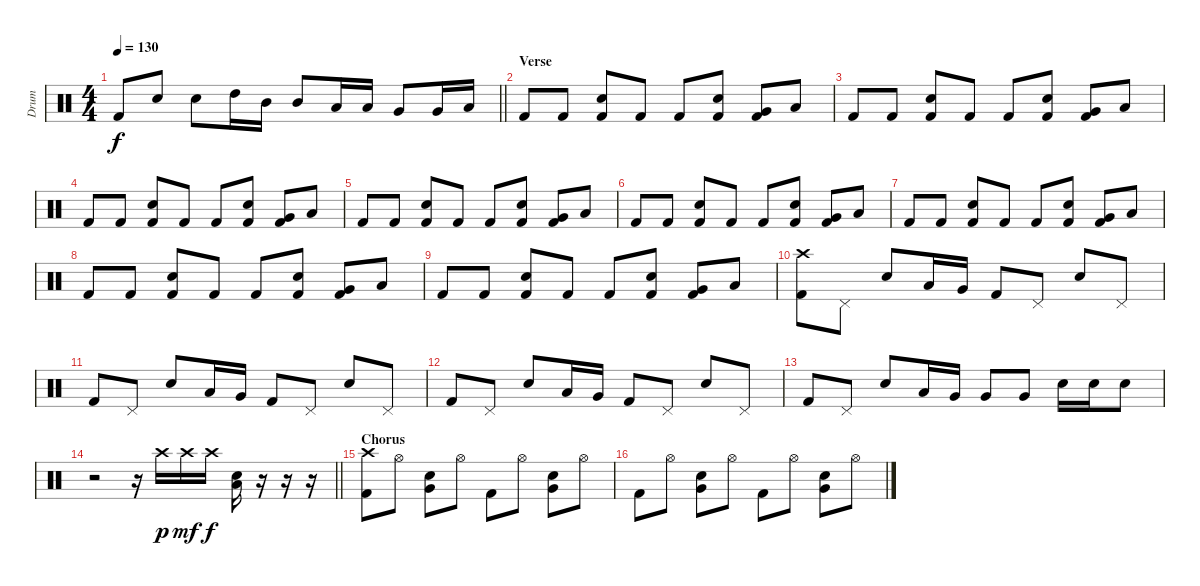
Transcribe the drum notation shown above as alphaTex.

\track ("Drum" "Drum") {instrument percussion}
\staff {score}
\articulation defaults
\ts (4 4)
\tempo 130
\clef neutral
\barLineRight lightlight
\ks c "Kick (hit) 2".8{dy f} "Electric Snare (hit)".8 "Electric Snare (hit)".8 "High Tom (hit)".16 "Mid Tom (hit)".16 "Mid Tom (hit)".8 "Low Tom (hit)".16 "Low Tom (hit)".16 "Very Low Tom (hit)".8 "Very Low Tom (hit)".16 "Low Floor Tom (hit)".16
|
\section ("" "Verse")
"Kick (hit) 2".8 "Kick (hit) 2".8 ("Kick (hit) 2" "Electric Snare (hit)").8 "Kick (hit) 2".8 "Kick (hit) 2".8 ("Kick (hit) 2" "Electric Snare (hit)").8 ("Kick (hit) 2" "Very Low Tom (hit)").8 "Low Floor Tom (hit)".8 |
"Kick (hit) 2".8 "Kick (hit) 2".8 ("Kick (hit) 2" "Electric Snare (hit)").8 "Kick (hit) 2".8 "Kick (hit) 2".8 ("Kick (hit) 2" "Electric Snare (hit)").8 ("Kick (hit) 2" "Very Low Tom (hit)").8 "Low Floor Tom (hit)".8 |
"Kick (hit) 2".8 "Kick (hit) 2".8 ("Kick (hit) 2" "Electric Snare (hit)").8 "Kick (hit) 2".8 "Kick (hit) 2".8 ("Kick (hit) 2" "Electric Snare (hit)").8 ("Kick (hit) 2" "Very Low Tom (hit)").8 "Low Floor Tom (hit)".8 |
"Kick (hit) 2".8 "Kick (hit) 2".8 ("Kick (hit) 2" "Electric Snare (hit)").8 "Kick (hit) 2".8 "Kick (hit) 2".8 ("Kick (hit) 2" "Electric Snare (hit)").8 ("Kick (hit) 2" "Very Low Tom (hit)").8 "Low Floor Tom (hit)".8 |
"Kick (hit) 2".8 "Kick (hit) 2".8 ("Kick (hit) 2" "Electric Snare (hit)").8 "Kick (hit) 2".8 "Kick (hit) 2".8 ("Kick (hit) 2" "Electric Snare (hit)").8 ("Kick (hit) 2" "Very Low Tom (hit)").8 "Low Floor Tom (hit)".8 |
"Kick (hit) 2".8 "Kick (hit) 2".8 ("Kick (hit) 2" "Electric Snare (hit)").8 "Kick (hit) 2".8 "Kick (hit) 2".8 ("Kick (hit) 2" "Electric Snare (hit)").8 ("Kick (hit) 2" "Very Low Tom (hit)").8 "Low Floor Tom (hit)".8 |
"Kick (hit) 2".8 "Kick (hit) 2".8 ("Kick (hit) 2" "Electric Snare (hit)").8 "Kick (hit) 2".8 "Kick (hit) 2".8 ("Kick (hit) 2" "Electric Snare (hit)").8 ("Kick (hit) 2" "Very Low Tom (hit)").8 "Low Floor Tom (hit)".8 |
"Kick (hit) 2".8 "Kick (hit) 2".8 ("Kick (hit) 2" "Electric Snare (hit)").8 "Kick (hit) 2".8 "Kick (hit) 2".8 ("Kick (hit) 2" "Electric Snare (hit)").8 ("Kick (hit) 2" "Very Low Tom (hit)").8 "Low Floor Tom (hit)".8 |
("Kick (hit) 2" "Crash high (hit)").8 "Pedal Hi-Hat (hit)".8 "Electric Snare (hit)".8 "Low Tom (hit)".16 "Very Low Tom (hit)".16 "Kick (hit) 2".8 "Pedal Hi-Hat (hit)".8 "Electric Snare (hit)".8 "Pedal Hi-Hat (hit)".8 |
"Kick (hit) 2".8 "Pedal Hi-Hat (hit)".8 "Electric Snare (hit)".8 "Low Tom (hit)".16 "Very Low Tom (hit)".16 "Kick (hit) 2".8 "Pedal Hi-Hat (hit)".8 "Electric Snare (hit)".8 "Pedal Hi-Hat (hit)".8 |
"Kick (hit) 2".8 "Pedal Hi-Hat (hit)".8 "Electric Snare (hit)".8 "Low Tom (hit)".16 "Very Low Tom (hit)".16 "Kick (hit) 2".8 "Pedal Hi-Hat (hit)".8 "Electric Snare (hit)".8 "Pedal Hi-Hat (hit)".8 |
"Kick (hit) 2".8 "Pedal Hi-Hat (hit)".8 "Electric Snare (hit)".8 "Low Tom (hit)".16 "Very Low Tom (hit)".16 "Very Low Tom (hit)".8 "Very Low Tom (hit)".8 "Electric Snare (hit)".16 "Electric Snare (hit)".16 "Electric Snare (hit)".8 |
\barLineRight lightlight
r.2 r.16 "Crash high (hit)".16{dy p} "Crash high (hit)".16{dy mf} "Crash high (hit)".16{dy f} ("Low Tom (hit)" "Electric Snare (hit)").16 r.16 r.16 r.16 |
\section ("" "Chorus")
("Kick (hit) 2" "Crash high (hit)").8 "Hi-Hat (open)".8 ("Snare (hit) 2" "Very Low Tom (hit)").8 "Hi-Hat (open)".8 "Kick (hit) 2".8 "Hi-Hat (open)".8 ("Snare (hit) 2" "Very Low Tom (hit)").8 "Hi-Hat (open)".8 |
"Kick (hit) 2".8 "Hi-Hat (open)".8 ("Snare (hit) 2" "Very Low Tom (hit)").8 "Hi-Hat (open)".8 "Kick (hit) 2".8 "Hi-Hat (open)".8 ("Snare (hit) 2" "Very Low Tom (hit)").8 "Hi-Hat (open)".8
